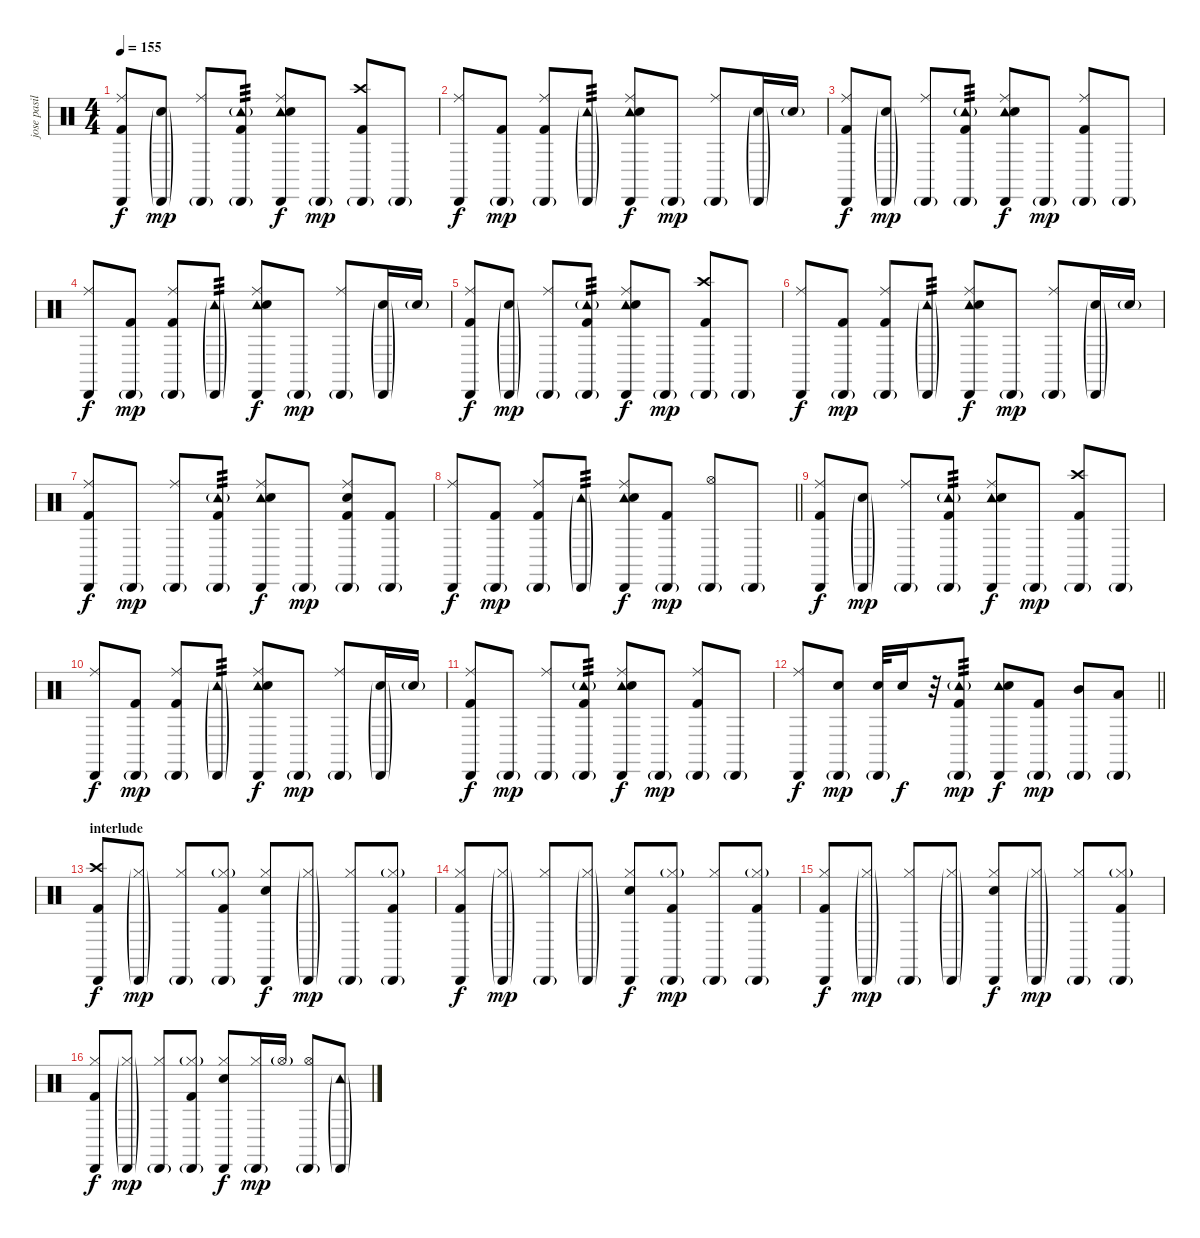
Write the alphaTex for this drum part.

\track ("jose pasillas" "jose pasil") {instrument percussion}
\staff {score}
\articulation defaults
\ts (4 4)
\tempo 155
\clef neutral
\ks c
("Cabasa (hit)" "Ride (middle)" "Kick (hit) 2").8{dy f} ("Cabasa (hit)"{g} "Snare (hit) 2"{g}).8{dy mp} ("Cabasa (hit)"{g} "Ride (middle)").8 ("Cabasa (hit)"{g} "Tambourine (hit)"{g} "Kick (hit) 2").8{tp 3} ("Cabasa (hit)" "Tambourine (hit)" "Ride (middle)" "Snare (hit) 2").8{dy f} "Cabasa (hit)"{g}.8{dy mp} ("Cabasa (hit)"{g} "Crash high (hit)" "Kick (hit) 2").8 "Cabasa (hit)"{g}.8 |
("Cabasa (hit)" "Ride (middle)").8{dy f} ("Cabasa (hit)"{g} "Kick (hit) 2").8{dy mp} ("Cabasa (hit)"{g} "Ride (middle)" "Kick (hit) 2").8 ("Cabasa (hit)"{g} "Tambourine (hit)"{g}).8{tp 3} ("Cabasa (hit)" "Tambourine (hit)" "Ride (middle)" "Snare (hit) 2").8{dy f} "Cabasa (hit)"{g}.8{dy mp} ("Cabasa (hit)"{g} "Ride (middle)").8 ("Cabasa (hit)"{g} "Snare (hit) 2"{g}).16 "Snare (hit) 2"{g}.16 |
("Cabasa (hit)" "Ride (middle)" "Kick (hit) 2").8{dy f} ("Cabasa (hit)"{g} "Snare (hit) 2"{g}).8{dy mp} ("Cabasa (hit)"{g} "Ride (middle)").8 ("Cabasa (hit)"{g} "Tambourine (hit)"{g} "Kick (hit) 2").8{tp 3} ("Cabasa (hit)" "Tambourine (hit)" "Ride (middle)" "Snare (hit) 2").8{dy f} "Cabasa (hit)"{g}.8{dy mp} ("Cabasa (hit)"{g} "Ride (middle)" "Kick (hit) 2").8 "Cabasa (hit)"{g}.8 |
("Cabasa (hit)" "Ride (middle)").8{dy f} ("Cabasa (hit)"{g} "Kick (hit) 2").8{dy mp} ("Cabasa (hit)"{g} "Ride (middle)" "Kick (hit) 2").8 ("Cabasa (hit)"{g} "Tambourine (hit)"{g}).8{tp 3} ("Cabasa (hit)" "Tambourine (hit)" "Ride (middle)" "Snare (hit) 2").8{dy f} "Cabasa (hit)"{g}.8{dy mp} ("Cabasa (hit)"{g} "Ride (middle)").8 ("Cabasa (hit)"{g} "Snare (hit) 2"{g}).16 "Snare (hit) 2"{g}.16 |
("Cabasa (hit)" "Ride (middle)" "Kick (hit) 2").8{dy f} ("Cabasa (hit)"{g} "Snare (hit) 2"{g}).8{dy mp} ("Cabasa (hit)"{g} "Ride (middle)").8 ("Cabasa (hit)"{g} "Tambourine (hit)"{g} "Kick (hit) 2").8{tp 3} ("Cabasa (hit)" "Tambourine (hit)" "Ride (middle)" "Snare (hit) 2").8{dy f} "Cabasa (hit)"{g}.8{dy mp} ("Cabasa (hit)"{g} "Crash high (hit)" "Kick (hit) 2").8 "Cabasa (hit)"{g}.8 |
("Cabasa (hit)" "Ride (middle)").8{dy f} ("Cabasa (hit)"{g} "Kick (hit) 2").8{dy mp} ("Cabasa (hit)"{g} "Ride (middle)" "Kick (hit) 2").8 ("Cabasa (hit)"{g} "Tambourine (hit)"{g}).8{tp 3} ("Cabasa (hit)" "Tambourine (hit)" "Ride (middle)" "Snare (hit) 2").8{dy f} "Cabasa (hit)"{g}.8{dy mp} ("Cabasa (hit)"{g} "Ride (middle)").8 ("Cabasa (hit)"{g} "Snare (hit) 2"{g}).16 "Snare (hit) 2"{g}.16 |
("Cabasa (hit)" "Ride (middle)" "Kick (hit) 2").8{dy f} "Cabasa (hit)"{g}.8{dy mp} ("Cabasa (hit)"{g} "Ride (middle)").8 ("Cabasa (hit)"{g} "Tambourine (hit)"{g} "Kick (hit) 2").8{tp 3} ("Cabasa (hit)" "Tambourine (hit)" "Ride (middle)" "Snare (hit) 2").8{dy f} "Cabasa (hit)"{g}.8{dy mp} ("Cabasa (hit)"{g} "Ride (middle)" "Snare (hit) 2" "Kick (hit) 2").8 ("Cabasa (hit)"{g} "Kick (hit) 2").8 |
\barLineRight lightlight
("Cabasa (hit)" "Ride (middle)").8{dy f} ("Cabasa (hit)"{g} "Kick (hit) 2").8{dy mp} ("Cabasa (hit)"{g} "Ride (middle)" "Kick (hit) 2").8 ("Cabasa (hit)"{g} "Tambourine (hit)"{g}).8{tp 3} ("Cabasa (hit)" "Tambourine (hit)" "Ride (middle)" "Snare (hit) 2").8{dy f} ("Cabasa (hit)"{g} "Kick (hit) 2").8{dy mp} ("Cabasa (hit)"{g} "Hi-Hat (open)").8 "Cabasa (hit)"{g}.8 |
("Cabasa (hit)" "Ride (middle)" "Kick (hit) 2").8{dy f} ("Cabasa (hit)"{g} "Snare (hit) 2"{g}).8{dy mp} ("Cabasa (hit)"{g} "Ride (middle)").8 ("Cabasa (hit)"{g} "Tambourine (hit)"{g} "Kick (hit) 2").8{tp 3} ("Cabasa (hit)" "Tambourine (hit)" "Ride (middle)" "Snare (hit) 2").8{dy f} "Cabasa (hit)"{g}.8{dy mp} ("Cabasa (hit)"{g} "Crash high (hit)" "Kick (hit) 2").8 "Cabasa (hit)"{g}.8 |
("Cabasa (hit)" "Ride (middle)").8{dy f} ("Cabasa (hit)"{g} "Kick (hit) 2").8{dy mp} ("Cabasa (hit)"{g} "Ride (middle)" "Kick (hit) 2").8 ("Cabasa (hit)"{g} "Tambourine (hit)"{g}).8{tp 3} ("Cabasa (hit)" "Tambourine (hit)" "Ride (middle)" "Snare (hit) 2").8{dy f} "Cabasa (hit)"{g}.8{dy mp} ("Cabasa (hit)"{g} "Ride (middle)").8 ("Cabasa (hit)"{g} "Snare (hit) 2"{g}).16 "Snare (hit) 2"{g}.16 |
("Cabasa (hit)" "Ride (middle)" "Kick (hit) 2").8{dy f} "Cabasa (hit)"{g}.8{dy mp} ("Cabasa (hit)"{g} "Ride (middle)").8 ("Cabasa (hit)"{g} "Tambourine (hit)"{g} "Kick (hit) 2").8{tp 3} ("Cabasa (hit)" "Tambourine (hit)" "Ride (middle)" "Snare (hit) 2").8{dy f} "Cabasa (hit)"{g}.8{dy mp} ("Cabasa (hit)"{g} "Ride (middle)" "Kick (hit) 2").8 "Cabasa (hit)"{g}.8 |
\barLineRight lightlight
("Cabasa (hit)" "Ride (middle)").8{dy f} ("Cabasa (hit)"{g} "Snare (hit) 2").8{dy mp} ("Cabasa (hit)"{g} "Snare (hit) 2").32 "Snare (hit) 2".16{dy f} r.32 ("Cabasa (hit)"{g} "Tambourine (hit)"{g} "Kick (hit) 2").8{tp 3 dy mp} ("Cabasa (hit)" "Tambourine (hit)" "Snare (hit) 2").8{dy f} ("Cabasa (hit)"{g} "Kick (hit) 2").8{dy mp} ("Cabasa (hit)"{g} "Mid Tom (hit)").8 ("Cabasa (hit)"{g} "Low Tom (hit)").8 |
\section ("" "interlude")
("Cabasa (hit)" "Crash high (hit)" "Kick (hit) 2").8{dy f} ("Cabasa (hit)"{g} "Hi-Hat (closed)"{g}).8{dy mp} ("Cabasa (hit)"{g} "Hi-Hat (closed)").8 ("Cabasa (hit)"{g} "Hi-Hat (closed)"{g} "Kick (hit) 2").8 ("Cabasa (hit)" "Hi-Hat (closed)" "Snare (hit) 2").8{dy f} ("Cabasa (hit)"{g} "Hi-Hat (closed)"{g}).8{dy mp} ("Cabasa (hit)"{g} "Hi-Hat (closed)").8 ("Cabasa (hit)"{g} "Hi-Hat (closed)"{g} "Kick (hit) 2").8 |
("Cabasa (hit)" "Hi-Hat (closed)" "Kick (hit) 2").8{dy f} ("Cabasa (hit)"{g} "Hi-Hat (closed)"{g}).8{dy mp} ("Cabasa (hit)"{g} "Hi-Hat (closed)").8 ("Cabasa (hit)"{g} "Hi-Hat (closed)"{g}).8 ("Cabasa (hit)" "Hi-Hat (closed)" "Snare (hit) 2").8{dy f} ("Cabasa (hit)"{g} "Hi-Hat (closed)"{g} "Kick (hit) 2").8{dy mp} ("Cabasa (hit)"{g} "Hi-Hat (closed)").8 ("Cabasa (hit)"{g} "Hi-Hat (closed)"{g} "Kick (hit) 2").8 |
("Cabasa (hit)" "Hi-Hat (closed)" "Kick (hit) 2").8{dy f} ("Cabasa (hit)"{g} "Hi-Hat (closed)"{g}).8{dy mp} ("Cabasa (hit)"{g} "Hi-Hat (closed)").8 ("Cabasa (hit)"{g} "Hi-Hat (closed)"{g}).8 ("Cabasa (hit)" "Hi-Hat (closed)" "Snare (hit) 2").8{dy f} ("Cabasa (hit)"{g} "Hi-Hat (closed)"{g}).8{dy mp} ("Cabasa (hit)"{g} "Hi-Hat (closed)").8 ("Cabasa (hit)"{g} "Hi-Hat (closed)"{g} "Kick (hit) 2").8 |
("Cabasa (hit)" "Hi-Hat (closed)" "Kick (hit) 2").8{dy f} ("Cabasa (hit)"{g} "Hi-Hat (closed)"{g}).8{dy mp} ("Cabasa (hit)"{g} "Hi-Hat (closed)").8 ("Cabasa (hit)"{g} "Hi-Hat (closed)"{g} "Kick (hit) 2").8 ("Cabasa (hit)" "Hi-Hat (closed)" "Snare (hit) 2").8{dy f} ("Cabasa (hit)"{g} "Hi-Hat (closed)").16{dy mp} "Hi-Hat (open)"{g}.16 ("Cabasa (hit)"{g} "Hi-Hat (open)").8 ("Cabasa (hit)"{g} "Tambourine (hit)"{g}).8
